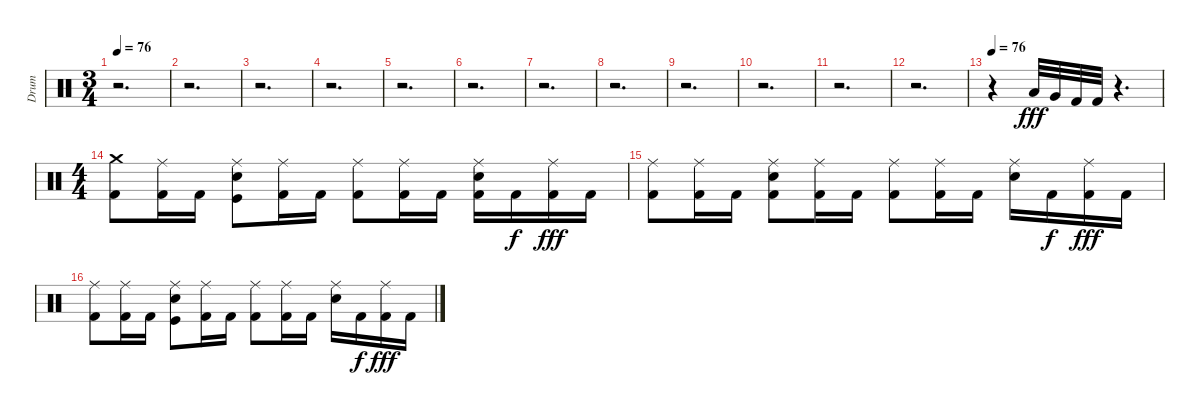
\track ("Drum" "Drum") {instrument percussion}
\staff {score}
\articulation defaults
\ts (3 4)
\tempo 76
\tempo 126
\tempo 76
\clef neutral
\ks c
r.2{d dy fff volume 16} |
r.2{d} |
r.2{d} |
r.2{d} |
r.2{d} |
r.2{d} |
r.2{d} |
r.2{d} |
r.2{d} |
r.2{d} |
r.2{d} |
r.2{d} |
\tempo 76
r.4 "Low Tom (hit)".32 "Very Low Tom (hit)".32 "Kick (hit) 2".32 "Kick (hit) 2".32 r.4{d} |
\ts (4 4)
("Kick (hit) 2" "Crash medium (hit)").8 ("Kick (hit) 2" "Ride (middle)").16 "Kick (hit) 2".16 ("Kick (hit)" "Electric Snare (hit)" "Ride (middle)").8 ("Kick (hit) 2" "Ride (middle)").16 "Kick (hit) 2".16 ("Kick (hit) 2" "Ride (middle)").8 ("Kick (hit) 2" "Ride (middle)").16 "Kick (hit) 2".16 ("Kick (hit) 2" "Electric Snare (hit)" "Ride (middle)").16 "Kick (hit) 2".16{dy f} ("Kick (hit) 2" "Ride (middle)").16{dy fff} "Kick (hit) 2".16 |
("Kick (hit) 2" "Ride (middle)").8 ("Kick (hit) 2" "Ride (middle)").16 "Kick (hit) 2".16 ("Kick (hit) 2" "Electric Snare (hit)" "Ride (middle)").8 ("Kick (hit) 2" "Ride (middle)").16 "Kick (hit) 2".16 ("Kick (hit) 2" "Ride (middle)").8 ("Kick (hit) 2" "Ride (middle)").16 "Kick (hit) 2".16 ("Electric Snare (hit)" "Ride (middle)").16 "Kick (hit) 2".16{dy f} ("Kick (hit) 2" "Ride (middle)").16{dy fff} "Kick (hit) 2".16 |
("Kick (hit) 2" "Ride (middle)").8 ("Kick (hit) 2" "Ride (middle)").16 "Kick (hit) 2".16 ("Kick (hit)" "Electric Snare (hit)" "Ride (middle)").8 ("Kick (hit) 2" "Ride (middle)").16 "Kick (hit) 2".16 ("Kick (hit) 2" "Ride (middle)").8 ("Kick (hit) 2" "Ride (middle)").16 "Kick (hit) 2".16 ("Electric Snare (hit)" "Ride (middle)").16 "Kick (hit) 2".16{dy f} ("Kick (hit) 2" "Ride (middle)").16{dy fff} "Kick (hit) 2".16
